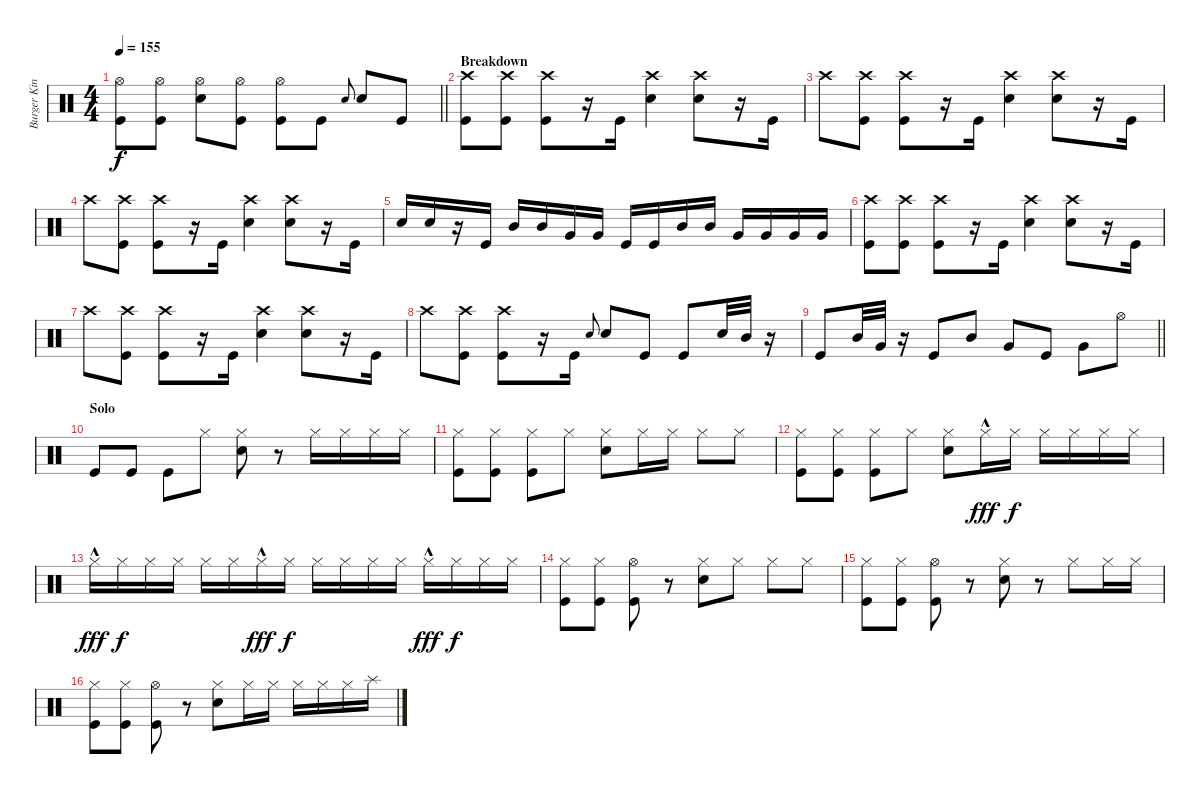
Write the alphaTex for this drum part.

\track ("Burger King" "Burger Kin") {instrument percussion}
\staff {score}
\articulation defaults
\ts (4 4)
\tempo 155
\clef neutral
\barLineRight lightlight
\ks c
("Kick (hit)" "Hi-Hat (open)").8{dy f} ("Kick (hit)" "Hi-Hat (open)").8 ("Snare (hit) 2" "Hi-Hat (open)").8 ("Kick (hit)" "Hi-Hat (open)").8 ("Kick (hit)" "Hi-Hat (open)").8 "Kick (hit)".8 "Snare (hit) 2".8{gr onbeat} "Snare (hit) 2".8 "Kick (hit)".8 |
\section ("" "Breakdown")
("Kick (hit)" "Crash high (hit)").8 ("Crash high (hit)" "Kick (hit)").8 ("Kick (hit)" "Crash high (hit)").8 r.16 "Kick (hit)".16 ("Snare (hit) 2" "Crash high (hit)").4 ("Snare (hit) 2" "Crash high (hit)").8 r.16 "Kick (hit)".16 |
"Crash high (hit)".8 ("Crash high (hit)" "Kick (hit)").8 ("Kick (hit)" "Crash high (hit)").8 r.16 "Kick (hit)".16 ("Snare (hit) 2" "Crash high (hit)").4 ("Snare (hit) 2" "Crash high (hit)").8 r.16 "Kick (hit)".16 |
"Crash high (hit)".8 ("Crash high (hit)" "Kick (hit)").8 ("Kick (hit)" "Crash high (hit)").8 r.16 "Kick (hit)".16 ("Snare (hit) 2" "Crash high (hit)").4 ("Snare (hit) 2" "Crash high (hit)").8 r.16 "Kick (hit)".16 |
"Snare (hit) 2".16 "Snare (hit) 2".16 r.16 "Kick (hit)".16 "Mid Tom (hit)".16 "Mid Tom (hit)".16 "Very Low Tom (hit)".16 "Very Low Tom (hit)".16 "Kick (hit)".16 "Kick (hit)".16 "Mid Tom (hit)".16 "Mid Tom (hit)".16 "Very Low Tom (hit)".16 "Very Low Tom (hit)".16 "Very Low Tom (hit)".16 "Very Low Tom (hit)".16 |
("Kick (hit)" "Crash high (hit)").8 ("Crash high (hit)" "Kick (hit)").8 ("Kick (hit)" "Crash high (hit)").8 r.16 "Kick (hit)".16 ("Snare (hit) 2" "Crash high (hit)").4 ("Snare (hit) 2" "Crash high (hit)").8 r.16 "Kick (hit)".16 |
"Crash high (hit)".8 ("Crash high (hit)" "Kick (hit)").8 ("Kick (hit)" "Crash high (hit)").8 r.16 "Kick (hit)".16 ("Snare (hit) 2" "Crash high (hit)").4 ("Snare (hit) 2" "Crash high (hit)").8 r.16 "Kick (hit)".16 |
"Crash high (hit)".8 ("Crash high (hit)" "Kick (hit)").8 ("Kick (hit)" "Crash high (hit)").8 r.16 "Kick (hit)".16 "Snare (hit) 2".8{gr onbeat} "Snare (hit) 2".8 "Kick (hit)".8 "Kick (hit)".8 "Snare (hit) 2".32 "Mid Tom (hit)".32 r.16 |
\barLineRight lightlight "Kick (hit)".8 "Mid Tom (hit)".32 "Very Low Tom (hit)".32
r.16 "Kick (hit)".8 "Mid Tom (hit)".8 "Very Low Tom (hit)".8 "Kick (hit)".8 "Very Low Tom (hit)".8 "Hi-Hat (open)".8 |
\section ("" "Solo")
"Kick (hit)".8 "Kick (hit)".8 "Kick (hit)".8 "Hi-Hat (closed)".8 ("Snare (hit) 2" "Hi-Hat (closed)").8 r.8 "Hi-Hat (closed)".16 "Hi-Hat (closed)".16 "Hi-Hat (closed)".16 "Hi-Hat (closed)".16 |
("Hi-Hat (closed)" "Kick (hit)").8 ("Kick (hit)" "Hi-Hat (closed)").8 ("Kick (hit)" "Hi-Hat (closed)").8 "Hi-Hat (closed)".8 ("Snare (hit) 2" "Hi-Hat (closed)").8 "Hi-Hat (closed)".16 "Hi-Hat (closed)".16 "Hi-Hat (closed)".8 "Hi-Hat (closed)".8 |
("Kick (hit)" "Hi-Hat (closed)").8 ("Kick (hit)" "Hi-Hat (closed)").8 ("Kick (hit)" "Hi-Hat (closed)").8 "Hi-Hat (closed)".8 ("Snare (hit) 2" "Hi-Hat (closed)").8 "Hi-Hat (closed)"{hac}.16{dy fff} "Hi-Hat (closed)".16{dy f} "Hi-Hat (closed)".16 "Hi-Hat (closed)".16 "Hi-Hat (closed)".16 "Hi-Hat (closed)".16 |
"Hi-Hat (closed)"{hac}.16{dy fff} "Hi-Hat (closed)".16{dy f} "Hi-Hat (closed)".16 "Hi-Hat (closed)".16 "Hi-Hat (closed)".16 "Hi-Hat (closed)".16 "Hi-Hat (closed)"{hac}.16{dy fff} "Hi-Hat (closed)".16{dy f} "Hi-Hat (closed)".16 "Hi-Hat (closed)".16 "Hi-Hat (closed)".16 "Hi-Hat (closed)".16 "Hi-Hat (closed)"{hac}.16{dy fff} "Hi-Hat (closed)".16{dy f} "Hi-Hat (closed)".16 "Hi-Hat (closed)".16 |
("Kick (hit)" "Hi-Hat (closed)").8 ("Kick (hit)" "Hi-Hat (closed)").8 ("Kick (hit)" "Hi-Hat (open)").8 r.8 ("Snare (hit) 2" "Hi-Hat (closed)").8 "Hi-Hat (closed)".8 "Hi-Hat (closed)".8 "Hi-Hat (closed)".8 |
("Hi-Hat (closed)" "Kick (hit)").8 ("Kick (hit)" "Hi-Hat (closed)").8 ("Kick (hit)" "Hi-Hat (open)").8 r.8 ("Snare (hit) 2" "Hi-Hat (closed)").8 r.8 "Hi-Hat (closed)".8 "Hi-Hat (closed)".16 "Hi-Hat (closed)".16 |
("Hi-Hat (closed)" "Kick (hit)").8 ("Hi-Hat (closed)" "Kick (hit)").8 ("Kick (hit)" "Hi-Hat (open)").8 r.8 ("Snare (hit) 2" "Hi-Hat (closed)").8 "Hi-Hat (closed)".16 "Hi-Hat (closed)".16 "Hi-Hat (closed)".16 "Hi-Hat (closed)".16 "Hi-Hat (closed)".16 "Splash (hit)".16
